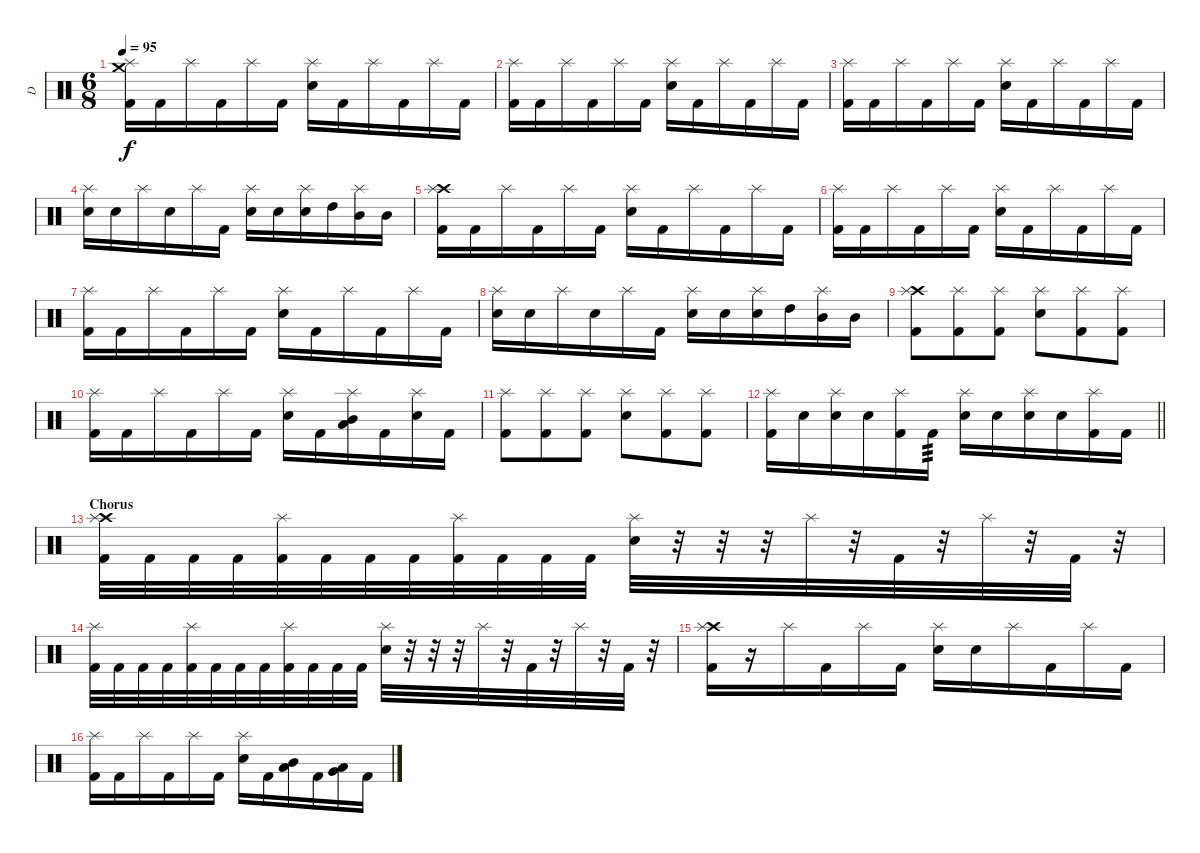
\track ("D" "D") {instrument percussion}
\staff {score}
\articulation defaults
\ts (6 8)
\tempo 95
\clef neutral
\ks c
("Crash medium (hit)" "Kick (hit) 2" "Splash (hit)").16{dy f} "Kick (hit) 2".16 "Splash (hit)".16 "Kick (hit) 2".16 "Splash (hit)".16 "Kick (hit) 2".16 ("Electric Snare (hit)" "Splash (hit)").16 "Kick (hit) 2".16 "Splash (hit)".16 "Kick (hit) 2".16 "Splash (hit)".16 "Kick (hit) 2".16 |
("Kick (hit) 2" "Splash (hit)").16 "Kick (hit) 2".16 "Splash (hit)".16 "Kick (hit) 2".16 "Splash (hit)".16 "Kick (hit) 2".16 ("Electric Snare (hit)" "Splash (hit)").16 "Kick (hit) 2".16 "Splash (hit)".16 "Kick (hit) 2".16 "Splash (hit)".16 "Kick (hit) 2".16 |
("Kick (hit) 2" "Splash (hit)").16 "Kick (hit) 2".16 "Splash (hit)".16 "Kick (hit) 2".16 "Splash (hit)".16 "Kick (hit) 2".16 ("Electric Snare (hit)" "Splash (hit)").16 "Kick (hit) 2".16 "Splash (hit)".16 "Kick (hit) 2".16 "Splash (hit)".16 "Kick (hit) 2".16 |
("Electric Snare (hit)" "Splash (hit)").16 "Electric Snare (hit)".16 "Splash (hit)".16 "Electric Snare (hit)".16 "Splash (hit)".16 "Kick (hit) 2".16 ("Electric Snare (hit)" "Splash (hit)").16 "Electric Snare (hit)".16 ("Electric Snare (hit)" "Splash (hit)").16 "High Tom (hit)".16 ("Mid Tom (hit)" "Splash (hit)").16 "Mid Tom (hit)".16 |
("Crash high (hit)" "Kick (hit) 2" "Splash (hit)").16 "Kick (hit) 2".16 "Splash (hit)".16 "Kick (hit) 2".16 "Splash (hit)".16 "Kick (hit) 2".16 ("Electric Snare (hit)" "Splash (hit)").16 "Kick (hit) 2".16 "Splash (hit)".16 "Kick (hit) 2".16 "Splash (hit)".16 "Kick (hit) 2".16 |
("Kick (hit) 2" "Splash (hit)").16 "Kick (hit) 2".16 "Splash (hit)".16 "Kick (hit) 2".16 "Splash (hit)".16 "Kick (hit) 2".16 ("Electric Snare (hit)" "Splash (hit)").16 "Kick (hit) 2".16 "Splash (hit)".16 "Kick (hit) 2".16 "Splash (hit)".16 "Kick (hit) 2".16 |
("Kick (hit) 2" "Splash (hit)").16 "Kick (hit) 2".16 "Splash (hit)".16 "Kick (hit) 2".16 "Splash (hit)".16 "Kick (hit) 2".16 ("Electric Snare (hit)" "Splash (hit)").16 "Kick (hit) 2".16 "Splash (hit)".16 "Kick (hit) 2".16 "Splash (hit)".16 "Kick (hit) 2".16 |
("Electric Snare (hit)" "Splash (hit)").16 "Electric Snare (hit)".16 "Splash (hit)".16 "Electric Snare (hit)".16 "Splash (hit)".16 "Kick (hit) 2".16 ("Electric Snare (hit)" "Splash (hit)").16 "Electric Snare (hit)".16 ("Electric Snare (hit)" "Splash (hit)").16 "High Tom (hit)".16 ("Mid Tom (hit)" "Splash (hit)").16 "Mid Tom (hit)".16 |
("Crash high (hit)" "Kick (hit) 2" "Splash (hit)").8 ("Kick (hit) 2" "Splash (hit)").8 ("Kick (hit) 2" "Splash (hit)").8 ("Electric Snare (hit)" "Splash (hit)").8 ("Kick (hit) 2" "Splash (hit)").8 ("Kick (hit) 2" "Splash (hit)").8 |
("Kick (hit) 2" "Splash (hit)").16 "Kick (hit) 2".16 "Splash (hit)".16 "Kick (hit) 2".16 "Splash (hit)".16 "Kick (hit) 2".16 ("Electric Snare (hit)" "Splash (hit)").16 "Kick (hit) 2".16 ("Mid Tom (hit)" "Low Tom (hit)" "Splash (hit)").16 "Kick (hit) 2".16 ("Electric Snare (hit)" "Splash (hit)").16 "Kick (hit) 2".16 |
("Kick (hit) 2" "Splash (hit)").8 ("Kick (hit) 2" "Splash (hit)").8 ("Kick (hit) 2" "Splash (hit)").8 ("Electric Snare (hit)" "Splash (hit)").8 ("Kick (hit) 2" "Splash (hit)").8 ("Kick (hit) 2" "Splash (hit)").8 |
\barLineRight lightlight
("Kick (hit) 2" "Splash (hit)").16 "Electric Snare (hit)".16 ("Electric Snare (hit)" "Splash (hit)").16 "Electric Snare (hit)".16 ("Kick (hit) 2" "Splash (hit)").16 "Kick (hit) 2".16{tp 3} ("Electric Snare (hit)" "Splash (hit)").16 "Electric Snare (hit)".16 ("Electric Snare (hit)" "Splash (hit)").16 "Electric Snare (hit)".16 ("Kick (hit) 2" "Splash (hit)").16 "Kick (hit) 2".16 |
\section ("" "Chorus")
("Crash high (hit)" "Kick (hit) 2" "Splash (hit)").32 "Kick (hit) 2".32 "Kick (hit) 2".32 "Kick (hit) 2".32 ("Kick (hit) 2" "Splash (hit)").32 "Kick (hit) 2".32 "Kick (hit) 2".32 "Kick (hit) 2".32 ("Kick (hit) 2" "Splash (hit)").32 "Kick (hit) 2".32 "Kick (hit) 2".32 "Kick (hit) 2".32 ("Electric Snare (hit)" "Splash (hit)").32 r.32 r.32 r.32 "Splash (hit)".32 r.32 "Kick (hit) 2".32 r.32 "Splash (hit)".32 r.32 "Kick (hit) 2".32 r.32 |
("Kick (hit) 2" "Splash (hit)").32 "Kick (hit) 2".32 "Kick (hit) 2".32 "Kick (hit) 2".32 ("Kick (hit) 2" "Splash (hit)").32 "Kick (hit) 2".32 "Kick (hit) 2".32 "Kick (hit) 2".32 ("Kick (hit) 2" "Splash (hit)").32 "Kick (hit) 2".32 "Kick (hit) 2".32 "Kick (hit) 2".32 ("Electric Snare (hit)" "Splash (hit)").32 r.32 r.32 r.32 "Splash (hit)".32 r.32 "Kick (hit) 2".32 r.32 "Splash (hit)".32 r.32 "Kick (hit) 2".32 r.32 |
("Crash high (hit)" "Kick (hit) 2" "Splash (hit)").16 r.16 "Splash (hit)".16 "Kick (hit) 2".16 "Splash (hit)".16 "Kick (hit) 2".16 ("Electric Snare (hit)" "Splash (hit)").16 "Electric Snare (hit)".16 "Splash (hit)".16 "Kick (hit) 2".16 "Splash (hit)".16 "Kick (hit) 2".16 |
("Kick (hit) 2" "Splash (hit)").16 "Kick (hit) 2".16 "Splash (hit)".16 "Kick (hit) 2".16 "Splash (hit)".16 "Kick (hit) 2".16 ("Electric Snare (hit)" "Splash (hit)").16 "Kick (hit) 2".16 ("Mid Tom (hit)" "Low Tom (hit)").16 "Kick (hit) 2".16 ("Very Low Tom (hit)" "Low Tom (hit)").16 "Kick (hit) 2".16
